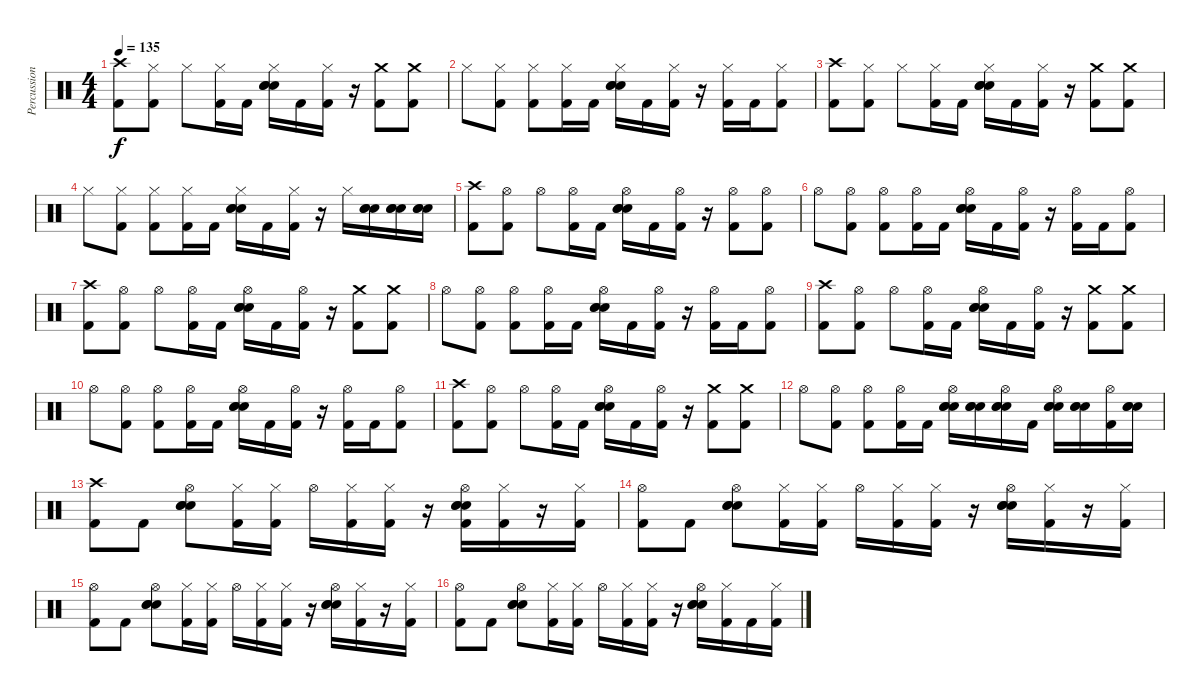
\track ("Percussions" "Percussion") {instrument percussion}
\staff {score}
\articulation defaults
\ts (4 4)
\tempo 135
\clef neutral
\ks c
("Crash high (hit)" "Kick (hit) 2").8{dy f} ("Hi-Hat (closed)" "Kick (hit) 2").8 "Hi-Hat (closed)".8 ("Hi-Hat (closed)" "Kick (hit) 2").16 "Kick (hit) 2".16 ("Hi-Hat (closed)" "Snare (hit) 2" "Electric Snare (hit)" "Electric Snare (hit)").16 "Kick (hit) 2".16 ("Hi-Hat (closed)" "Kick (hit) 2").16 r.16 ("Crash medium (hit)" "Kick (hit) 2").8 ("Crash medium (hit)" "Kick (hit) 2").8 |
"Hi-Hat (closed)".8 ("Hi-Hat (closed)" "Kick (hit) 2").8 ("Hi-Hat (closed)" "Kick (hit) 2").8 ("Hi-Hat (closed)" "Kick (hit) 2").16 "Kick (hit) 2".16 ("Hi-Hat (closed)" "Snare (hit) 2" "Electric Snare (hit)" "Electric Snare (hit)").16 "Kick (hit) 2".16 ("Hi-Hat (closed)" "Kick (hit) 2").16 r.16 ("Hi-Hat (closed)" "Kick (hit) 2").16 "Kick (hit) 2".16 ("Hi-Hat (closed)" "Kick (hit) 2").8 |
("Crash high (hit)" "Kick (hit) 2").8 ("Hi-Hat (closed)" "Kick (hit) 2").8 "Hi-Hat (closed)".8 ("Hi-Hat (closed)" "Kick (hit) 2").16 "Kick (hit) 2".16 ("Hi-Hat (closed)" "Snare (hit) 2" "Electric Snare (hit)" "Electric Snare (hit)").16 "Kick (hit) 2".16 ("Hi-Hat (closed)" "Kick (hit) 2").16 r.16 ("Crash medium (hit)" "Kick (hit) 2").8 ("Crash medium (hit)" "Kick (hit) 2").8 |
"Hi-Hat (closed)".8 ("Hi-Hat (closed)" "Kick (hit) 2").8 ("Hi-Hat (closed)" "Kick (hit) 2").8 ("Hi-Hat (closed)" "Kick (hit) 2").16 "Kick (hit) 2".16 ("Hi-Hat (closed)" "Snare (hit) 2" "Electric Snare (hit)" "Electric Snare (hit)").16 "Kick (hit) 2".16 ("Hi-Hat (closed)" "Kick (hit) 2").16 r.16 "Hi-Hat (closed)".16 ("Snare (hit) 2" "Electric Snare (hit)" "Electric Snare (hit)").16 ("Snare (hit) 2" "Electric Snare (hit)" "Electric Snare (hit)").16 ("Snare (hit) 2" "Electric Snare (hit)" "Electric Snare (hit)").16 |
("Crash high (hit)" "Kick (hit) 2").8 ("Hi-Hat (open)" "Kick (hit) 2").8 "Hi-Hat (open)".8 ("Hi-Hat (open)" "Kick (hit) 2").16 "Kick (hit) 2".16 ("Hi-Hat (open)" "Snare (hit) 2" "Electric Snare (hit)" "Electric Snare (hit)").16 "Kick (hit) 2".16 ("Hi-Hat (open)" "Kick (hit) 2").16 r.16 ("Hi-Hat (open)" "Kick (hit) 2").8 ("Hi-Hat (open)" "Kick (hit) 2").8 |
"Hi-Hat (open)".8 ("Hi-Hat (open)" "Kick (hit) 2").8 ("Hi-Hat (open)" "Kick (hit) 2").8 ("Hi-Hat (open)" "Kick (hit) 2").16 "Kick (hit) 2".16 ("Hi-Hat (open)" "Snare (hit) 2" "Electric Snare (hit)" "Electric Snare (hit)").16 "Kick (hit) 2".16 ("Hi-Hat (open)" "Kick (hit) 2").16 r.16 ("Hi-Hat (open)" "Kick (hit) 2").16 "Kick (hit) 2".16 ("Hi-Hat (open)" "Kick (hit) 2").8 |
("Crash high (hit)" "Kick (hit) 2").8 ("Hi-Hat (open)" "Kick (hit) 2").8 "Hi-Hat (open)".8 ("Hi-Hat (open)" "Kick (hit) 2").16 "Kick (hit) 2".16 ("Hi-Hat (open)" "Snare (hit) 2" "Electric Snare (hit)" "Electric Snare (hit)").16 "Kick (hit) 2".16 ("Hi-Hat (open)" "Kick (hit) 2").16 r.16 ("Crash medium (hit)" "Kick (hit) 2").8 ("Crash medium (hit)" "Kick (hit) 2").8 |
"Hi-Hat (open)".8 ("Hi-Hat (open)" "Kick (hit) 2").8 ("Hi-Hat (open)" "Kick (hit) 2").8 ("Hi-Hat (open)" "Kick (hit) 2").16 "Kick (hit) 2".16 ("Hi-Hat (open)" "Snare (hit) 2" "Electric Snare (hit)" "Electric Snare (hit)").16 "Kick (hit) 2".16 ("Hi-Hat (open)" "Kick (hit) 2").16 r.16 ("Hi-Hat (open)" "Kick (hit) 2").16 "Kick (hit) 2".16 ("Hi-Hat (open)" "Kick (hit) 2").8 |
("Crash high (hit)" "Kick (hit) 2").8 ("Hi-Hat (open)" "Kick (hit) 2").8 "Hi-Hat (open)".8 ("Hi-Hat (open)" "Kick (hit) 2").16 "Kick (hit) 2".16 ("Hi-Hat (open)" "Snare (hit) 2" "Electric Snare (hit)" "Electric Snare (hit)").16 "Kick (hit) 2".16 ("Hi-Hat (open)" "Kick (hit) 2").16 r.16 ("Crash medium (hit)" "Kick (hit) 2").8 ("Crash medium (hit)" "Kick (hit) 2").8 |
"Hi-Hat (open)".8 ("Hi-Hat (open)" "Kick (hit) 2").8 ("Hi-Hat (open)" "Kick (hit) 2").8 ("Hi-Hat (open)" "Kick (hit) 2").16 "Kick (hit) 2".16 ("Hi-Hat (open)" "Snare (hit) 2" "Electric Snare (hit)" "Electric Snare (hit)").16 "Kick (hit) 2".16 ("Hi-Hat (open)" "Kick (hit) 2").16 r.16 ("Hi-Hat (open)" "Kick (hit) 2").16 "Kick (hit) 2".16 ("Hi-Hat (open)" "Kick (hit) 2").8 |
("Crash high (hit)" "Kick (hit) 2").8 ("Hi-Hat (open)" "Kick (hit) 2").8 "Hi-Hat (open)".8 ("Hi-Hat (open)" "Kick (hit) 2").16 "Kick (hit) 2".16 ("Hi-Hat (open)" "Snare (hit) 2" "Electric Snare (hit)" "Electric Snare (hit)").16 "Kick (hit) 2".16 ("Hi-Hat (open)" "Kick (hit) 2").16 r.16 ("Crash medium (hit)" "Kick (hit) 2").8 ("Crash medium (hit)" "Kick (hit) 2").8 |
"Hi-Hat (open)".8 ("Hi-Hat (open)" "Kick (hit) 2").8 ("Hi-Hat (open)" "Kick (hit) 2").8 ("Hi-Hat (open)" "Kick (hit) 2").16 "Kick (hit) 2".16 ("Hi-Hat (open)" "Snare (hit) 2" "Electric Snare (hit)" "Electric Snare (hit)").16 ("Snare (hit) 2" "Electric Snare (hit)" "Electric Snare (hit)").16 ("Hi-Hat (open)" "Snare (hit) 2" "Electric Snare (hit)" "Electric Snare (hit)").16 "Kick (hit) 2".16 ("Hi-Hat (open)" "Snare (hit) 2" "Electric Snare (hit)" "Electric Snare (hit)").16 ("Snare (hit) 2" "Electric Snare (hit)" "Electric Snare (hit)").16 ("Hi-Hat (open)" "Kick (hit) 2").16 ("Snare (hit) 2" "Electric Snare (hit)" "Electric Snare (hit)").16 |
("Crash high (hit)" "Kick (hit) 2").8 "Kick (hit) 2".8 ("Hi-Hat (open)" "Snare (hit) 2" "Electric Snare (hit)" "Electric Snare (hit)").8 ("Hi-Hat (closed)" "Kick (hit) 2").16 ("Hi-Hat (closed)" "Kick (hit) 2").16 "Hi-Hat (open)".16 ("Hi-Hat (closed)" "Kick (hit) 2").16 ("Hi-Hat (closed)" "Kick (hit) 2").16 r.16 ("Hi-Hat (open)" "Kick (hit) 2" "Snare (hit) 2" "Electric Snare (hit)" "Electric Snare (hit)").16 ("Hi-Hat (closed)" "Kick (hit) 2").16 r.16 ("Hi-Hat (closed)" "Kick (hit) 2").16 |
("Hi-Hat (open)" "Kick (hit) 2").8 "Kick (hit) 2".8 ("Hi-Hat (open)" "Snare (hit) 2" "Electric Snare (hit)" "Electric Snare (hit)").8 ("Hi-Hat (closed)" "Kick (hit) 2").16 ("Hi-Hat (closed)" "Kick (hit) 2").16 "Hi-Hat (open)".16 ("Hi-Hat (closed)" "Kick (hit) 2").16 ("Hi-Hat (closed)" "Kick (hit) 2").16 r.16 ("Hi-Hat (open)" "Snare (hit) 2" "Electric Snare (hit)" "Electric Snare (hit)").16 ("Hi-Hat (closed)" "Kick (hit) 2").16 r.16 ("Hi-Hat (closed)" "Kick (hit) 2").16 |
("Hi-Hat (open)" "Kick (hit) 2").8 "Kick (hit) 2".8 ("Hi-Hat (open)" "Snare (hit) 2" "Electric Snare (hit)" "Electric Snare (hit)").8 ("Hi-Hat (closed)" "Kick (hit) 2").16 ("Hi-Hat (closed)" "Kick (hit) 2").16 "Hi-Hat (open)".16 ("Hi-Hat (closed)" "Kick (hit) 2").16 ("Hi-Hat (closed)" "Kick (hit) 2").16 r.16 ("Hi-Hat (open)" "Snare (hit) 2" "Electric Snare (hit)" "Electric Snare (hit)").16 ("Hi-Hat (closed)" "Kick (hit) 2").16 r.16 ("Hi-Hat (closed)" "Kick (hit) 2").16 |
("Hi-Hat (open)" "Kick (hit) 2").8 "Kick (hit) 2".8 ("Hi-Hat (open)" "Snare (hit) 2" "Electric Snare (hit)" "Electric Snare (hit)").8 ("Hi-Hat (closed)" "Kick (hit) 2").16 ("Hi-Hat (closed)" "Kick (hit) 2").16 "Hi-Hat (open)".16 ("Hi-Hat (closed)" "Kick (hit) 2").16 ("Hi-Hat (closed)" "Kick (hit) 2").16 r.16 ("Hi-Hat (open)" "Snare (hit) 2" "Electric Snare (hit)" "Electric Snare (hit)").16 ("Hi-Hat (closed)" "Kick (hit) 2").16 "Kick (hit) 2".16 ("Hi-Hat (closed)" "Kick (hit) 2").16
